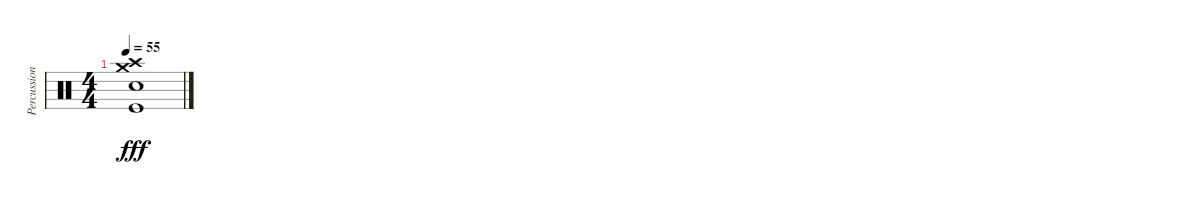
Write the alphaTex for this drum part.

\track ("Percussions" "Percussion") {instrument percussion}
\staff {score}
\articulation defaults
\ts (4 4)
\tempo 55
\clef neutral
\ks c
("Kick (hit)" "Electric Snare (hit)" "Crash high (hit)" "Crash medium (hit)").1{dy fff}
